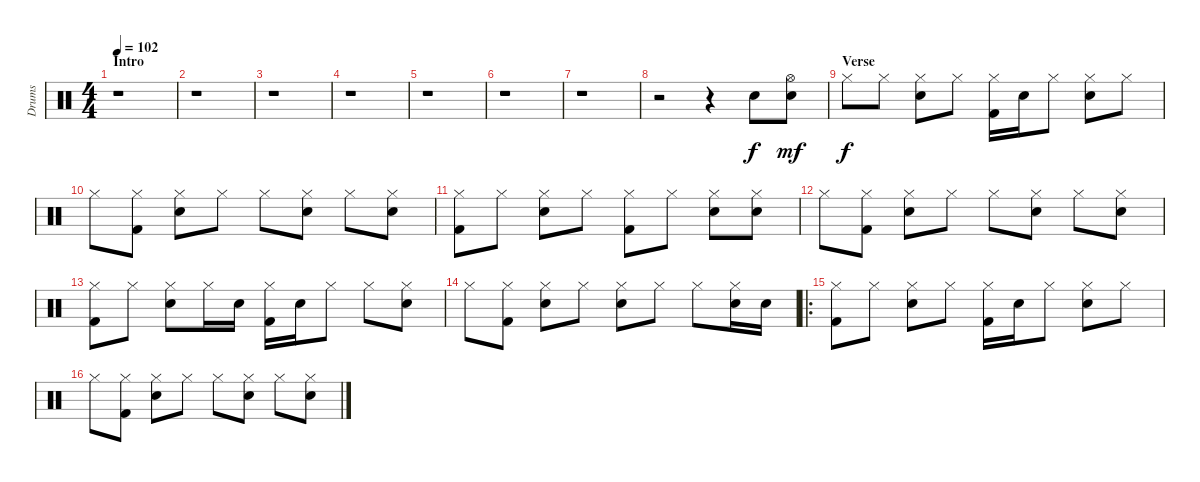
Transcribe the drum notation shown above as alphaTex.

\track ("Drums" "Drums") {instrument percussion}
\staff {score}
\articulation defaults
\ts (4 4)
\section ("" "Intro")
\tempo 102
\clef neutral
\ks c
r.1{dy f} |
r.1 |
r.1 |
r.1 |
r.1 |
r.1 |
r.1 |
r.2 r.4 "Electric Snare (hit)".8 ("Hi-Hat (open)" "Electric Snare (hit)").8{dy mf} |
\section ("" "Verse")
"Hi-Hat (closed)".8{dy f} "Hi-Hat (closed)".8 ("Hi-Hat (closed)" "Electric Snare (hit)").8 "Hi-Hat (closed)".8 ("Hi-Hat (closed)" "Kick (hit) 2").16 "Electric Snare (hit)".16 "Hi-Hat (closed)".8 ("Hi-Hat (closed)" "Electric Snare (hit)").8 "Hi-Hat (closed)".8 |
"Hi-Hat (closed)".8 ("Hi-Hat (closed)" "Kick (hit) 2").8 ("Hi-Hat (closed)" "Electric Snare (hit)").8 "Hi-Hat (closed)".8 "Hi-Hat (closed)".8 ("Hi-Hat (closed)" "Electric Snare (hit)").8 "Hi-Hat (closed)".8 ("Hi-Hat (closed)" "Electric Snare (hit)").8 |
("Hi-Hat (closed)" "Kick (hit) 2").8 "Hi-Hat (closed)".8 ("Hi-Hat (closed)" "Electric Snare (hit)").8 "Hi-Hat (closed)".8 ("Hi-Hat (closed)" "Kick (hit) 2").8 "Hi-Hat (closed)".8 ("Hi-Hat (closed)" "Electric Snare (hit)").8 ("Hi-Hat (closed)" "Electric Snare (hit)").8 |
"Hi-Hat (closed)".8 ("Hi-Hat (closed)" "Kick (hit) 2").8 ("Hi-Hat (closed)" "Electric Snare (hit)").8 "Hi-Hat (closed)".8 "Hi-Hat (closed)".8 ("Hi-Hat (closed)" "Electric Snare (hit)").8 "Hi-Hat (closed)".8 ("Hi-Hat (closed)" "Electric Snare (hit)").8 |
("Hi-Hat (closed)" "Kick (hit) 2").8 "Hi-Hat (closed)".8 ("Hi-Hat (closed)" "Electric Snare (hit)").8 "Hi-Hat (closed)".16 "Electric Snare (hit)".16 ("Hi-Hat (closed)" "Kick (hit) 2").16 "Electric Snare (hit)".16 "Hi-Hat (closed)".8 "Hi-Hat (closed)".8 ("Hi-Hat (closed)" "Electric Snare (hit)").8 |
"Hi-Hat (closed)".8 ("Hi-Hat (closed)" "Kick (hit) 2").8 ("Hi-Hat (closed)" "Electric Snare (hit)").8 "Hi-Hat (closed)".8 ("Hi-Hat (closed)" "Electric Snare (hit)").8 "Hi-Hat (closed)".8 "Hi-Hat (closed)".8 ("Hi-Hat (closed)" "Electric Snare (hit)").16 "Electric Snare (hit)".16 |
\ro
("Hi-Hat (closed)" "Kick (hit) 2").8 "Hi-Hat (closed)".8 ("Hi-Hat (closed)" "Electric Snare (hit)").8 "Hi-Hat (closed)".8 ("Hi-Hat (closed)" "Kick (hit) 2").16 "Electric Snare (hit)".16 "Hi-Hat (closed)".8 ("Hi-Hat (closed)" "Electric Snare (hit)").8 "Hi-Hat (closed)".8 |
"Hi-Hat (closed)".8 ("Hi-Hat (closed)" "Kick (hit) 2").8 ("Hi-Hat (closed)" "Electric Snare (hit)").8 "Hi-Hat (closed)".8 "Hi-Hat (closed)".8 ("Hi-Hat (closed)" "Electric Snare (hit)").8 "Hi-Hat (closed)".8 ("Hi-Hat (closed)" "Electric Snare (hit)").8
